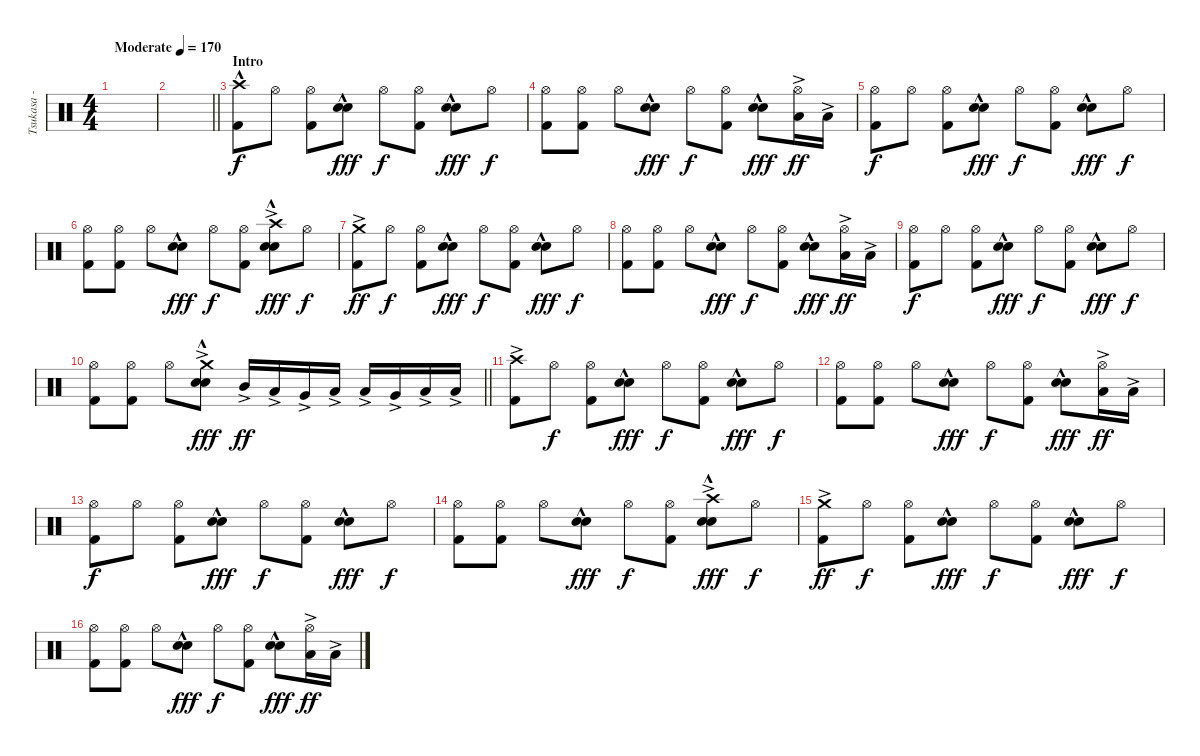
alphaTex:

\track ("Tsukasa - Drums" "Tsukasa - ") {instrument percussion}
\staff {score}
\articulation defaults
\ts (4 4)
\tempo (170 "Moderate")
\clef neutral
\ks c
|
\barLineRight lightlight
|
\section ("" "Intro")
("Crash high (hit)"{hac} "Kick (hit) 2").8 "Hi-Hat (open)".8{dy f} ("Hi-Hat (open)" "Kick (hit) 2").8 ("Electric Snare (hit)"{hac} "Snare (hit) 2").8{dy fff} "Hi-Hat (open)".8{dy f} ("Hi-Hat (open)" "Kick (hit) 2").8 ("Electric Snare (hit)"{hac} "Snare (hit) 2").8{dy fff} "Hi-Hat (open)".8{dy f} |
("Hi-Hat (open)" "Kick (hit) 2").8 ("Hi-Hat (open)" "Kick (hit) 2").8 "Hi-Hat (open)".8 ("Electric Snare (hit)"{hac} "Snare (hit) 2").8{dy fff} "Hi-Hat (open)".8{dy f} ("Hi-Hat (open)" "Kick (hit) 2").8 ("Electric Snare (hit)"{hac} "Snare (hit) 2").8{dy fff} ("Hi-Hat (open)" "Low Tom (hit)"{ac}).16{dy ff} "Low Tom (hit)"{ac}.16 |
("Hi-Hat (open)" "Kick (hit) 2").8{dy f} "Hi-Hat (open)".8 ("Hi-Hat (open)" "Kick (hit) 2").8 ("Electric Snare (hit)"{hac} "Snare (hit) 2").8{dy fff} "Hi-Hat (open)".8{dy f} ("Hi-Hat (open)" "Kick (hit) 2").8 ("Electric Snare (hit)"{hac} "Snare (hit) 2").8{dy fff} "Hi-Hat (open)".8{dy f} |
("Hi-Hat (open)" "Kick (hit) 2").8 ("Hi-Hat (open)" "Kick (hit) 2").8 "Hi-Hat (open)".8 ("Electric Snare (hit)"{hac} "Snare (hit) 2").8{dy fff} "Hi-Hat (open)".8{dy f} ("Hi-Hat (open)" "Kick (hit) 2").8 ("Crash high (hit)"{ac} "Electric Snare (hit)"{hac} "Snare (hit) 2").8{dy fff} "Hi-Hat (open)".8{dy f} |
("Crash medium (hit)"{ac} "Kick (hit) 2").8{dy ff} "Hi-Hat (open)".8{dy f} ("Hi-Hat (open)" "Kick (hit) 2").8 ("Electric Snare (hit)"{hac} "Snare (hit) 2").8{dy fff} "Hi-Hat (open)".8{dy f} ("Hi-Hat (open)" "Kick (hit) 2").8 ("Electric Snare (hit)"{hac} "Snare (hit) 2").8{dy fff} "Hi-Hat (open)".8{dy f} |
("Hi-Hat (open)" "Kick (hit) 2").8 ("Hi-Hat (open)" "Kick (hit) 2").8 "Hi-Hat (open)".8 ("Electric Snare (hit)"{hac} "Snare (hit) 2").8{dy fff} "Hi-Hat (open)".8{dy f} ("Hi-Hat (open)" "Kick (hit) 2").8 ("Electric Snare (hit)"{hac} "Snare (hit) 2").8{dy fff} ("Hi-Hat (open)" "Low Tom (hit)"{ac}).16{dy ff} "Low Tom (hit)"{ac}.16 |
("Hi-Hat (open)" "Kick (hit) 2").8{dy f} "Hi-Hat (open)".8 ("Hi-Hat (open)" "Kick (hit) 2").8 ("Electric Snare (hit)"{hac} "Snare (hit) 2").8{dy fff} "Hi-Hat (open)".8{dy f} ("Hi-Hat (open)" "Kick (hit) 2").8 ("Electric Snare (hit)"{hac} "Snare (hit) 2").8{dy fff} "Hi-Hat (open)".8{dy f} |
\barLineRight lightlight
("Hi-Hat (open)" "Kick (hit) 2").8 ("Hi-Hat (open)" "Kick (hit) 2").8 "Hi-Hat (open)".8 ("Crash medium (hit)"{ac} "Electric Snare (hit)"{hac} "Snare (hit) 2").8{dy fff} "Mid Tom (hit)"{ac}.16{dy ff} "Low Tom (hit)"{ac}.16 "Very Low Tom (hit)"{ac}.16 "Low Floor Tom (hit)"{ac}.16 "Low Tom (hit)"{ac}.16 "Very Low Tom (hit)"{ac}.16 "Low Floor Tom (hit)"{ac}.16 "Low Floor Tom (hit)"{ac}.16 |
\section ("" "")
("Crash high (hit)"{ac} "Kick (hit) 2").8 "Hi-Hat (open)".8{dy f} ("Hi-Hat (open)" "Kick (hit) 2").8 ("Electric Snare (hit)"{hac} "Snare (hit) 2").8{dy fff} "Hi-Hat (open)".8{dy f} ("Hi-Hat (open)" "Kick (hit) 2").8 ("Electric Snare (hit)"{hac} "Snare (hit) 2").8{dy fff} "Hi-Hat (open)".8{dy f} |
("Hi-Hat (open)" "Kick (hit) 2").8 ("Hi-Hat (open)" "Kick (hit) 2").8 "Hi-Hat (open)".8 ("Electric Snare (hit)"{hac} "Snare (hit) 2").8{dy fff} "Hi-Hat (open)".8{dy f} ("Hi-Hat (open)" "Kick (hit) 2").8 ("Electric Snare (hit)"{hac} "Snare (hit) 2").8{dy fff} ("Hi-Hat (open)" "Low Tom (hit)"{ac}).16{dy ff} "Low Tom (hit)"{ac}.16 |
("Hi-Hat (open)" "Kick (hit) 2").8{dy f} "Hi-Hat (open)".8 ("Hi-Hat (open)" "Kick (hit) 2").8 ("Electric Snare (hit)"{hac} "Snare (hit) 2").8{dy fff} "Hi-Hat (open)".8{dy f} ("Hi-Hat (open)" "Kick (hit) 2").8 ("Electric Snare (hit)"{hac} "Snare (hit) 2").8{dy fff} "Hi-Hat (open)".8{dy f} |
("Hi-Hat (open)" "Kick (hit) 2").8 ("Hi-Hat (open)" "Kick (hit) 2").8 "Hi-Hat (open)".8 ("Electric Snare (hit)"{hac} "Snare (hit) 2").8{dy fff} "Hi-Hat (open)".8{dy f} ("Hi-Hat (open)" "Kick (hit) 2").8 ("Crash high (hit)"{ac} "Electric Snare (hit)"{hac} "Snare (hit) 2").8{dy fff} "Hi-Hat (open)".8{dy f} |
("Crash medium (hit)"{ac} "Kick (hit) 2").8{dy ff} "Hi-Hat (open)".8{dy f} ("Hi-Hat (open)" "Kick (hit) 2").8 ("Electric Snare (hit)"{hac} "Snare (hit) 2").8{dy fff} "Hi-Hat (open)".8{dy f} ("Hi-Hat (open)" "Kick (hit) 2").8 ("Electric Snare (hit)"{hac} "Snare (hit) 2").8{dy fff} "Hi-Hat (open)".8{dy f} |
("Hi-Hat (open)" "Kick (hit) 2").8 ("Hi-Hat (open)" "Kick (hit) 2").8 "Hi-Hat (open)".8 ("Electric Snare (hit)"{hac} "Snare (hit) 2").8{dy fff} "Hi-Hat (open)".8{dy f} ("Hi-Hat (open)" "Kick (hit) 2").8 ("Electric Snare (hit)"{hac} "Snare (hit) 2").8{dy fff} ("Hi-Hat (open)" "Low Tom (hit)"{ac}).16{dy ff} "Low Tom (hit)"{ac}.16
